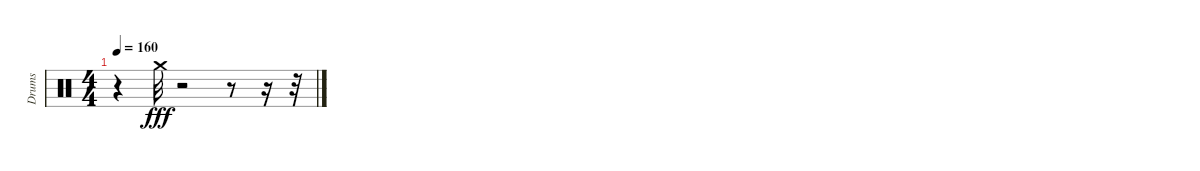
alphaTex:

\track ("Drums" "Drums") {instrument percussion}
\staff {score}
\articulation defaults
\ts (4 4)
\tempo 160
\clef neutral
\ks c
r.4{dy fff} "Crash medium (hit)".32 r.2 r.8 r.16 r.32
